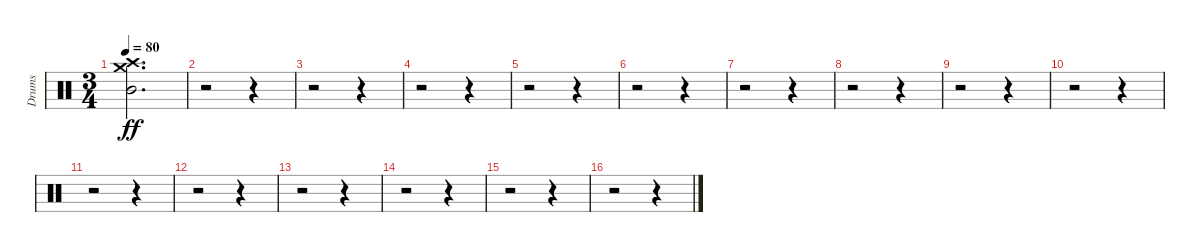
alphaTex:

\track ("Drums" "Drums") {instrument percussion}
\staff {score}
\articulation defaults
\ts (3 4)
\tempo 80
\clef neutral
\ks c
("Crash high (hit)" "Crash medium (hit)" "Mid Tom (hit)").2{d dy ff volume 13} |
r.2 r.4 |
r.2 r.4 |
r.2 r.4 |
r.2 r.4 |
r.2 r.4 |
r.2 r.4 |
r.2 r.4 |
r.2 r.4 |
r.2 r.4 |
r.2 r.4 |
r.2 r.4 |
r.2 r.4 |
r.2 r.4 |
r.2 r.4 |
r.2 r.4
